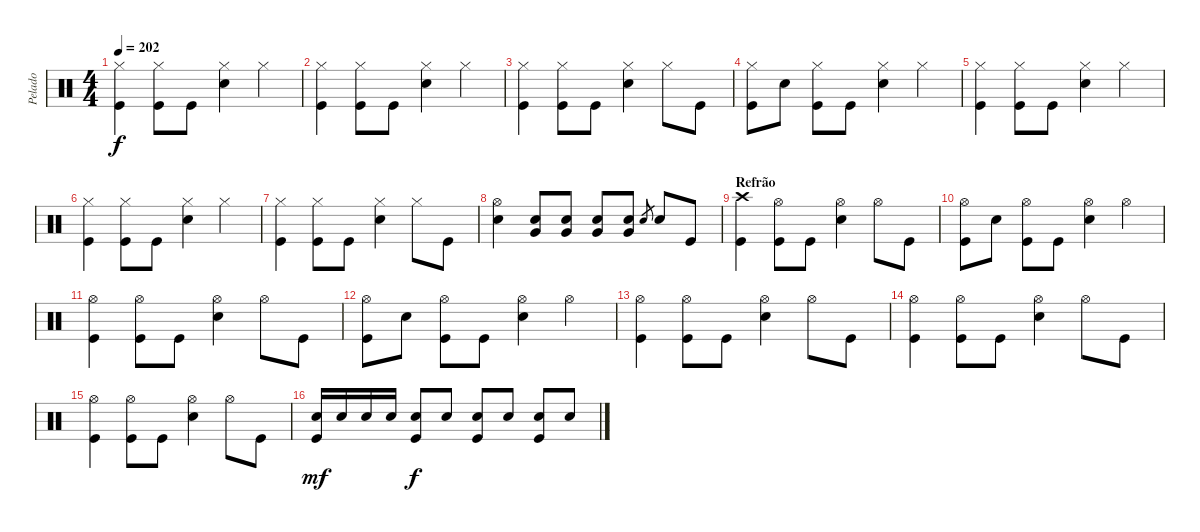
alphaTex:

\track ("Pelado" "Pelado") {instrument percussion}
\staff {score}
\articulation defaults
\ts (4 4)
\tempo 202
\clef neutral
\ks c
("Hi-Hat (closed)" "Kick (hit)").4{dy f} ("Hi-Hat (closed)" "Kick (hit)").8 "Kick (hit)".8 ("Hi-Hat (closed)" "Electric Snare (hit)").4 "Hi-Hat (closed)".4 |
("Hi-Hat (closed)" "Kick (hit)").4 ("Hi-Hat (closed)" "Kick (hit)").8 "Kick (hit)".8 ("Hi-Hat (closed)" "Electric Snare (hit)").4 "Hi-Hat (closed)".4 |
("Hi-Hat (closed)" "Kick (hit)").4 ("Hi-Hat (closed)" "Kick (hit)").8 "Kick (hit)".8 ("Hi-Hat (closed)" "Electric Snare (hit)").4 "Hi-Hat (closed)".8 "Kick (hit)".8 |
("Hi-Hat (closed)" "Kick (hit)").8 "Electric Snare (hit)".8 ("Hi-Hat (closed)" "Kick (hit)").8 "Kick (hit)".8 ("Hi-Hat (closed)" "Electric Snare (hit)").4 "Hi-Hat (closed)".4 |
("Hi-Hat (closed)" "Kick (hit)").4 ("Hi-Hat (closed)" "Kick (hit)").8 "Kick (hit)".8 ("Hi-Hat (closed)" "Electric Snare (hit)").4 "Hi-Hat (closed)".4 |
("Hi-Hat (closed)" "Kick (hit)").4 ("Hi-Hat (closed)" "Kick (hit)").8 "Kick (hit)".8 ("Hi-Hat (closed)" "Electric Snare (hit)").4 "Hi-Hat (closed)".4 |
("Hi-Hat (closed)" "Kick (hit)").4 ("Hi-Hat (closed)" "Kick (hit)").8 "Kick (hit)".8 ("Hi-Hat (closed)" "Electric Snare (hit)").4 "Hi-Hat (closed)".8 "Kick (hit)".8 |
("Hi-Hat (open)" "Electric Snare (hit)").4 ("Very Low Tom (hit)" "Electric Snare (hit)").8 ("Very Low Tom (hit)" "Electric Snare (hit)").8 ("Very Low Tom (hit)" "Electric Snare (hit)").8 ("Very Low Tom (hit)" "Electric Snare (hit)").8 "Electric Snare (hit)".8{gr} "Electric Snare (hit)".8 "Kick (hit)".8 |
\section ("" "Refrão")
("Crash high (hit)" "Kick (hit)").4 ("Hi-Hat (open)" "Kick (hit)").8 "Kick (hit)".8 ("Hi-Hat (open)" "Electric Snare (hit)").4 "Hi-Hat (open)".8 "Kick (hit)".8 |
("Hi-Hat (open)" "Kick (hit)").8 "Electric Snare (hit)".8 ("Hi-Hat (open)" "Kick (hit)").8 "Kick (hit)".8 ("Hi-Hat (open)" "Electric Snare (hit)").4 "Hi-Hat (open)".4 |
("Hi-Hat (open)" "Kick (hit)").4 ("Hi-Hat (open)" "Kick (hit)").8 "Kick (hit)".8 ("Hi-Hat (open)" "Electric Snare (hit)").4 "Hi-Hat (open)".8 "Kick (hit)".8 |
("Hi-Hat (open)" "Kick (hit)").8 "Electric Snare (hit)".8 ("Hi-Hat (open)" "Kick (hit)").8 "Kick (hit)".8 ("Hi-Hat (open)" "Electric Snare (hit)").4 "Hi-Hat (open)".4 |
("Hi-Hat (open)" "Kick (hit)").4 ("Hi-Hat (open)" "Kick (hit)").8 "Kick (hit)".8 ("Hi-Hat (open)" "Electric Snare (hit)").4 "Hi-Hat (open)".8 "Kick (hit)".8 |
("Hi-Hat (open)" "Kick (hit)").4 ("Hi-Hat (open)" "Kick (hit)").8 "Kick (hit)".8 ("Hi-Hat (open)" "Electric Snare (hit)").4 "Hi-Hat (open)".8 "Kick (hit)".8 |
("Hi-Hat (open)" "Kick (hit)").4 ("Hi-Hat (open)" "Kick (hit)").8 "Kick (hit)".8 ("Hi-Hat (open)" "Electric Snare (hit)").4 "Hi-Hat (open)".8 "Kick (hit)".8 |
("Electric Snare (hit)" "Kick (hit)").16{dy mf} "Electric Snare (hit)".16 "Electric Snare (hit)".16 "Electric Snare (hit)".16 ("Electric Snare (hit)" "Kick (hit)").8{dy f} "Electric Snare (hit)".8 ("Electric Snare (hit)" "Kick (hit)").8 "Electric Snare (hit)".8 ("Electric Snare (hit)" "Kick (hit)").8 "Electric Snare (hit)".8
